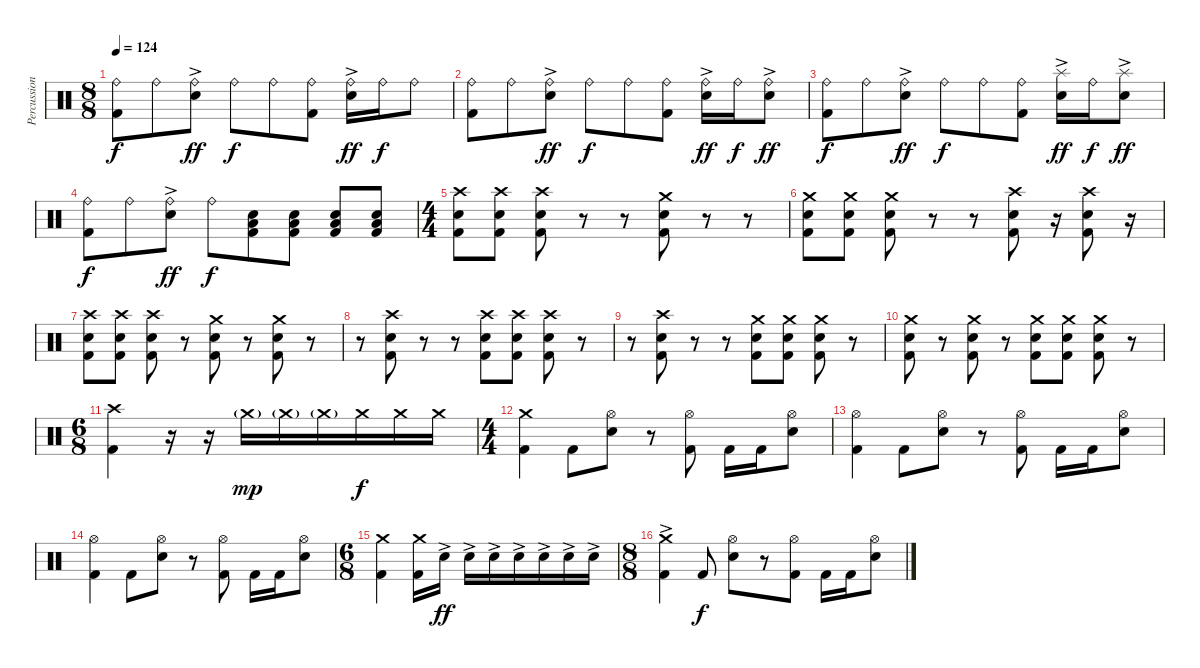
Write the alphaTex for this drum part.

\track ("Percussion" "Percussion") {instrument percussion}
\staff {score}
\articulation defaults
\ts (8 8)
\tempo 124
\clef neutral
\ks c
("Ride (bell)" "Kick (hit) 2").8{dy f} "Ride (bell)".8 ("Ride (bell)" "Electric Snare (hit)"{ac}).8{dy ff} "Ride (bell)".8{dy f} "Ride (bell)".8 ("Ride (bell)" "Kick (hit) 2").8 ("Ride (bell)" "Electric Snare (hit)"{ac}).16{dy ff} "Ride (bell)".16{dy f} "Ride (bell)".8 |
("Ride (bell)" "Kick (hit) 2").8 "Ride (bell)".8 ("Ride (bell)" "Electric Snare (hit)"{ac}).8{dy ff} "Ride (bell)".8{dy f} "Ride (bell)".8 ("Ride (bell)" "Kick (hit) 2").8 ("Ride (bell)" "Electric Snare (hit)"{ac}).16{dy ff} "Ride (bell)".16{dy f} ("Ride (bell)" "Electric Snare (hit)"{ac}).8{dy ff} |
("Ride (bell)" "Kick (hit) 2").8{dy f} "Ride (bell)".8 ("Ride (bell)" "Electric Snare (hit)"{ac}).8{dy ff} "Ride (bell)".8{dy f} "Ride (bell)".8 ("Ride (bell)" "Kick (hit) 2").8 ("Splash (hit)" "Electric Snare (hit)"{ac}).16{dy ff} "Ride (bell)".16{dy f} ("Splash (hit)" "Electric Snare (hit)"{ac}).8{dy ff} |
("Ride (bell)" "Kick (hit) 2").8{dy f} "Ride (bell)".8 ("Ride (bell)" "Electric Snare (hit)"{ac}).8{dy ff} "Ride (bell)".8{dy f} ("Low Floor Tom (hit)" "Electric Snare (hit)" "Kick (hit) 2").8 ("Low Floor Tom (hit)" "Electric Snare (hit)" "Kick (hit) 2").8 ("Low Floor Tom (hit)" "Electric Snare (hit)" "Kick (hit) 2").8 ("Low Floor Tom (hit)" "Electric Snare (hit)" "Kick (hit) 2").8 |
\ts (4 4)
("Kick (hit) 2" "Crash high (hit)" "Electric Snare (hit)").8 ("Kick (hit) 2" "Crash high (hit)" "Electric Snare (hit)").8 ("Kick (hit) 2" "Crash high (hit)" "Electric Snare (hit)").8 r.8 r.8 ("Kick (hit) 2" "Crash medium (hit)" "Electric Snare (hit)").8 r.8 r.8 |
("Kick (hit) 2" "Crash medium (hit)" "Electric Snare (hit)").8 ("Kick (hit) 2" "Crash medium (hit)" "Electric Snare (hit)").8 ("Kick (hit) 2" "Crash medium (hit)" "Electric Snare (hit)").8 r.8 r.8 ("Kick (hit) 2" "Crash high (hit)" "Electric Snare (hit)").8 r.16 ("Kick (hit) 2" "Crash high (hit)" "Electric Snare (hit)").8 r.16 |
("Kick (hit) 2" "Crash high (hit)" "Electric Snare (hit)").8 ("Kick (hit) 2" "Crash high (hit)" "Electric Snare (hit)").8 ("Kick (hit) 2" "Crash high (hit)" "Electric Snare (hit)").8 r.8 ("Kick (hit) 2" "Crash medium (hit)" "Electric Snare (hit)").8 r.8 ("Kick (hit) 2" "Crash medium (hit)" "Electric Snare (hit)").8 r.8 |
r.8 ("Kick (hit) 2" "Crash high (hit)" "Electric Snare (hit)").8 r.8 r.8 ("Kick (hit) 2" "Crash high (hit)" "Electric Snare (hit)").8 ("Kick (hit) 2" "Crash high (hit)" "Electric Snare (hit)").8 ("Kick (hit) 2" "Crash high (hit)" "Electric Snare (hit)").8 r.8 |
r.8 ("Kick (hit) 2" "Crash high (hit)" "Electric Snare (hit)").8 r.8 r.8 ("Kick (hit) 2" "Crash medium (hit)" "Electric Snare (hit)").8 ("Kick (hit) 2" "Crash medium (hit)" "Electric Snare (hit)").8 ("Kick (hit) 2" "Crash medium (hit)" "Electric Snare (hit)").8 r.8 |
("Kick (hit) 2" "Crash medium (hit)" "Electric Snare (hit)").8 r.8 ("Kick (hit) 2" "Crash medium (hit)" "Electric Snare (hit)").8 r.8 ("Kick (hit) 2" "Crash medium (hit)" "Electric Snare (hit)").8 ("Kick (hit) 2" "Crash medium (hit)" "Electric Snare (hit)").8 ("Kick (hit) 2" "Crash medium (hit)" "Electric Snare (hit)").8 r.8 |
\ts (6 8)
("Kick (hit) 2" "Crash high (hit)").4 r.16 r.16 "Crash medium (hit)"{g}.16{dy mp} "Crash medium (hit)"{g}.16 "Crash medium (hit)"{g}.16 "Crash medium (hit)".16{dy f} "Crash medium (hit)".16 "Crash medium (hit)".16 |
\ts (4 4)
("Crash medium (hit)" "Kick (hit) 2").4 "Kick (hit) 2".8 ("Hi-Hat (open)" "Electric Snare (hit)").8 r.8 ("Hi-Hat (open)" "Kick (hit) 2").8 "Kick (hit) 2".16 "Kick (hit) 2".16 ("Hi-Hat (open)" "Electric Snare (hit)").8 |
("Hi-Hat (open)" "Kick (hit) 2").4 "Kick (hit) 2".8 ("Hi-Hat (open)" "Electric Snare (hit)").8 r.8 ("Hi-Hat (open)" "Kick (hit) 2").8 "Kick (hit) 2".16 "Kick (hit) 2".16 ("Hi-Hat (open)" "Electric Snare (hit)").8 |
("Hi-Hat (open)" "Kick (hit) 2").4 "Kick (hit) 2".8 ("Hi-Hat (open)" "Electric Snare (hit)").8 r.8 ("Hi-Hat (open)" "Kick (hit) 2").8 "Kick (hit) 2".16 "Kick (hit) 2".16 ("Hi-Hat (open)" "Electric Snare (hit)").8 |
\ts (6 8)
("Kick (hit) 2" "Crash medium (hit)").4 ("Crash medium (hit)" "Kick (hit) 2").16 "Electric Snare (hit)"{ac}.16{dy ff} "Electric Snare (hit)"{ac}.16 "Electric Snare (hit)"{ac}.16 "Electric Snare (hit)"{ac}.16 "Electric Snare (hit)"{ac}.16 "Electric Snare (hit)"{ac}.16 "Electric Snare (hit)"{ac}.16 |
\ts (8 8)
("Crash medium (hit)" "Kick (hit) 2"{ac}).4 "Kick (hit) 2".8{dy f} ("Hi-Hat (open)" "Electric Snare (hit)").8 r.8 ("Hi-Hat (open)" "Kick (hit) 2").8 "Kick (hit) 2".16 "Kick (hit) 2".16 ("Hi-Hat (open)" "Electric Snare (hit)").8
